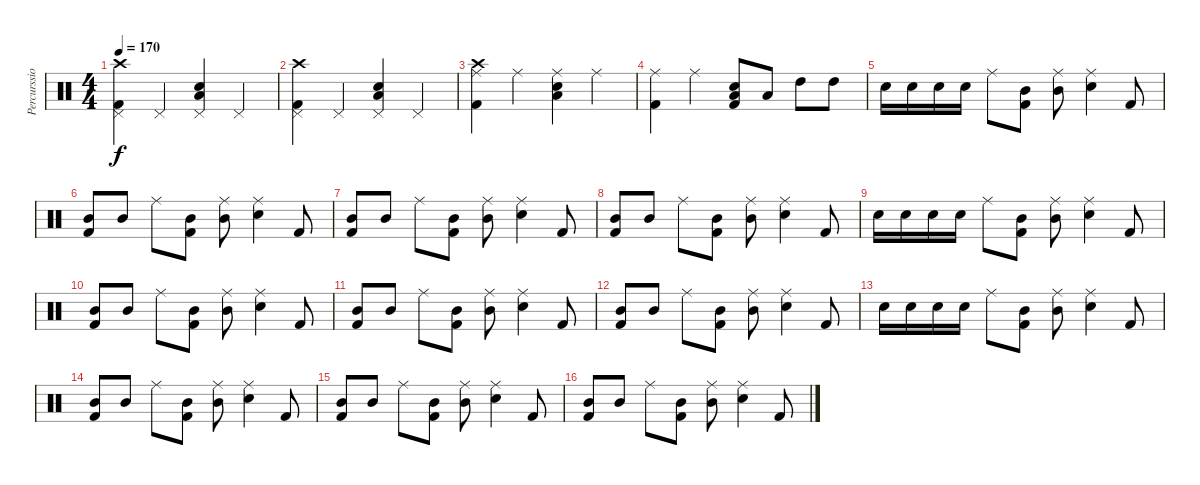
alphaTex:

\track ("Percurssion" "Percurssio") {instrument percussion}
\staff {score}
\articulation defaults
\ts (4 4)
\tempo 170
\clef neutral
\ks c
("Crash high (hit)" "Pedal Hi-Hat (hit)" "Kick (hit) 2").4{dy f} "Pedal Hi-Hat (hit)".4 ("Low Tom (hit)" "Pedal Hi-Hat (hit)" "Electric Snare (hit)").4 "Pedal Hi-Hat (hit)".4 |
("Crash high (hit)" "Pedal Hi-Hat (hit)" "Kick (hit) 2").4 "Pedal Hi-Hat (hit)".4 ("Low Tom (hit)" "Pedal Hi-Hat (hit)" "Electric Snare (hit)").4 "Pedal Hi-Hat (hit)".4 |
("Crash high (hit)" "Ride (middle)" "Kick (hit) 2").4 "Ride (middle)".4 ("Low Tom (hit)" "Ride (middle)" "Electric Snare (hit)").4 "Ride (middle)".4 |
("Ride (middle)" "Kick (hit) 2").4 "Ride (middle)".4 ("Low Tom (hit)" "Electric Snare (hit)" "Kick (hit) 2").8{bu 480} "Low Tom (hit)".8 "High Tom (hit)".8 "High Tom (hit)".8 |
"Electric Snare (hit)".16 "Electric Snare (hit)".16 "Electric Snare (hit)".16 "Electric Snare (hit)".16 "Ride (middle)".8 ("Mid Tom (hit)" "Kick (hit) 2").8 ("Mid Tom (hit)" "Ride (middle)").8 ("Ride (middle)" "Electric Snare (hit)").4 "Kick (hit) 2".8 |
("Mid Tom (hit)" "Kick (hit) 2").8 "Mid Tom (hit)".8 "Ride (middle)".8 ("Mid Tom (hit)" "Kick (hit) 2").8 ("Mid Tom (hit)" "Ride (middle)").8 ("Ride (middle)" "Electric Snare (hit)").4 "Kick (hit) 2".8 |
("Mid Tom (hit)" "Kick (hit) 2").8 "Mid Tom (hit)".8 "Ride (middle)".8 ("Mid Tom (hit)" "Kick (hit) 2").8 ("Mid Tom (hit)" "Ride (middle)").8 ("Ride (middle)" "Electric Snare (hit)").4 "Kick (hit) 2".8 |
("Mid Tom (hit)" "Kick (hit) 2").8 "Mid Tom (hit)".8 "Ride (middle)".8 ("Mid Tom (hit)" "Kick (hit) 2").8 ("Mid Tom (hit)" "Ride (middle)").8 ("Ride (middle)" "Electric Snare (hit)").4 "Kick (hit) 2".8 |
"Electric Snare (hit)".16 "Electric Snare (hit)".16 "Electric Snare (hit)".16 "Electric Snare (hit)".16 "Ride (middle)".8 ("Mid Tom (hit)" "Kick (hit) 2").8 ("Mid Tom (hit)" "Ride (middle)").8 ("Ride (middle)" "Electric Snare (hit)").4 "Kick (hit) 2".8 |
("Mid Tom (hit)" "Kick (hit) 2").8 "Mid Tom (hit)".8 "Ride (middle)".8 ("Mid Tom (hit)" "Kick (hit) 2").8 ("Mid Tom (hit)" "Ride (middle)").8 ("Ride (middle)" "Electric Snare (hit)").4 "Kick (hit) 2".8 |
("Mid Tom (hit)" "Kick (hit) 2").8 "Mid Tom (hit)".8 "Ride (middle)".8 ("Mid Tom (hit)" "Kick (hit) 2").8 ("Mid Tom (hit)" "Ride (middle)").8 ("Ride (middle)" "Electric Snare (hit)").4 "Kick (hit) 2".8 |
("Mid Tom (hit)" "Kick (hit) 2").8 "Mid Tom (hit)".8 "Ride (middle)".8 ("Mid Tom (hit)" "Kick (hit) 2").8 ("Mid Tom (hit)" "Ride (middle)").8 ("Ride (middle)" "Electric Snare (hit)").4 "Kick (hit) 2".8 |
"Electric Snare (hit)".16 "Electric Snare (hit)".16 "Electric Snare (hit)".16 "Electric Snare (hit)".16 "Ride (middle)".8 ("Mid Tom (hit)" "Kick (hit) 2").8 ("Mid Tom (hit)" "Ride (middle)").8 ("Ride (middle)" "Electric Snare (hit)").4 "Kick (hit) 2".8 |
("Mid Tom (hit)" "Kick (hit) 2").8 "Mid Tom (hit)".8 "Ride (middle)".8 ("Mid Tom (hit)" "Kick (hit) 2").8 ("Mid Tom (hit)" "Ride (middle)").8 ("Ride (middle)" "Electric Snare (hit)").4 "Kick (hit) 2".8 |
("Mid Tom (hit)" "Kick (hit) 2").8 "Mid Tom (hit)".8 "Ride (middle)".8 ("Mid Tom (hit)" "Kick (hit) 2").8 ("Mid Tom (hit)" "Ride (middle)").8 ("Ride (middle)" "Electric Snare (hit)").4 "Kick (hit) 2".8 |
("Mid Tom (hit)" "Kick (hit) 2").8 "Mid Tom (hit)".8 "Ride (middle)".8 ("Mid Tom (hit)" "Kick (hit) 2").8 ("Mid Tom (hit)" "Ride (middle)").8 ("Ride (middle)" "Electric Snare (hit)").4 "Kick (hit) 2".8
